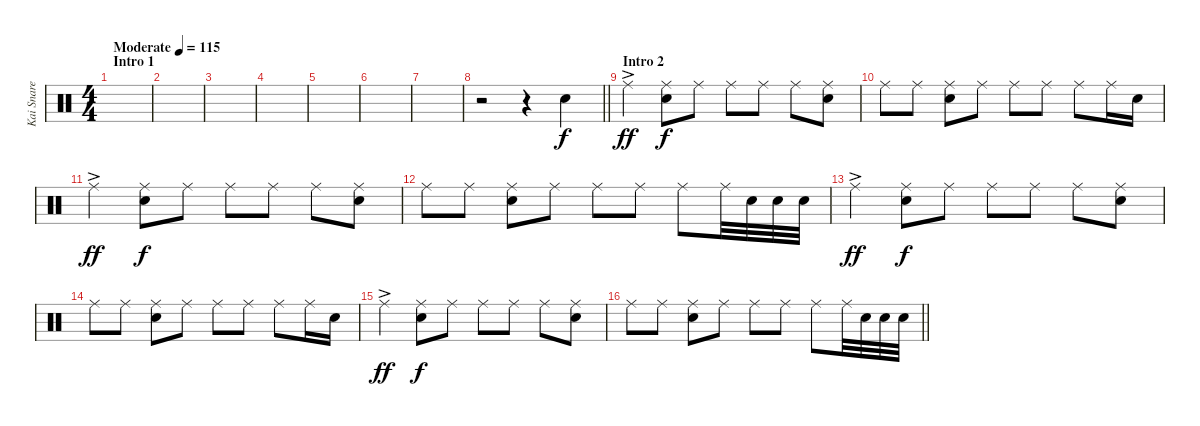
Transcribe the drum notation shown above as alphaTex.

\track ("Kai Snare" "Kai Snare") {instrument percussion}
\staff {score}
\articulation defaults
\ts (4 4)
\section ("" "Intro 1")
\tempo (115 "Moderate")
\clef neutral
\ks c
|
|
|
|
|
|
|
\barLineRight lightlight
r.2 r.4 "Snare (hit) 2".4 |
\section ("" "Intro 2")
"Ride (middle)"{ac}.4{dy ff} ("Ride (middle)" "Snare (hit) 2").8{dy f} "Ride (middle)".8 "Ride (middle)".8 "Ride (middle)".8 "Ride (middle)".8 ("Ride (middle)" "Snare (hit) 2").8 |
"Ride (middle)".8 "Ride (middle)".8 ("Ride (middle)" "Snare (hit) 2").8 "Ride (middle)".8 "Ride (middle)".8 "Ride (middle)".8 "Ride (middle)".8 "Ride (middle)".16 "Snare (hit) 2".16 |
"Ride (middle)"{ac}.4{dy ff} ("Ride (middle)" "Snare (hit) 2").8{dy f} "Ride (middle)".8 "Ride (middle)".8 "Ride (middle)".8 "Ride (middle)".8 ("Ride (middle)" "Snare (hit) 2").8 |
"Ride (middle)".8 "Ride (middle)".8 ("Ride (middle)" "Snare (hit) 2").8 "Ride (middle)".8 "Ride (middle)".8 "Ride (middle)".8 "Ride (middle)".8 "Ride (middle)".32 "Snare (hit) 2".32 "Snare (hit) 2".32 "Snare (hit) 2".32 |
"Ride (middle)"{ac}.4{dy ff} ("Ride (middle)" "Snare (hit) 2").8{dy f} "Ride (middle)".8 "Ride (middle)".8 "Ride (middle)".8 "Ride (middle)".8 ("Ride (middle)" "Snare (hit) 2").8 |
"Ride (middle)".8 "Ride (middle)".8 ("Ride (middle)" "Snare (hit) 2").8 "Ride (middle)".8 "Ride (middle)".8 "Ride (middle)".8 "Ride (middle)".8 "Ride (middle)".16 "Snare (hit) 2".16 |
"Ride (middle)"{ac}.4{dy ff} ("Ride (middle)" "Snare (hit) 2").8{dy f} "Ride (middle)".8 "Ride (middle)".8 "Ride (middle)".8 "Ride (middle)".8 ("Ride (middle)" "Snare (hit) 2").8 |
\barLineRight lightlight "Ride (middle)".8 "Ride (middle)".8
("Ride (middle)" "Snare (hit) 2").8 "Ride (middle)".8 "Ride (middle)".8 "Ride (middle)".8 "Ride (middle)".8 "Ride (middle)".32 "Snare (hit) 2".32 "Snare (hit) 2".32 "Snare (hit) 2".32
